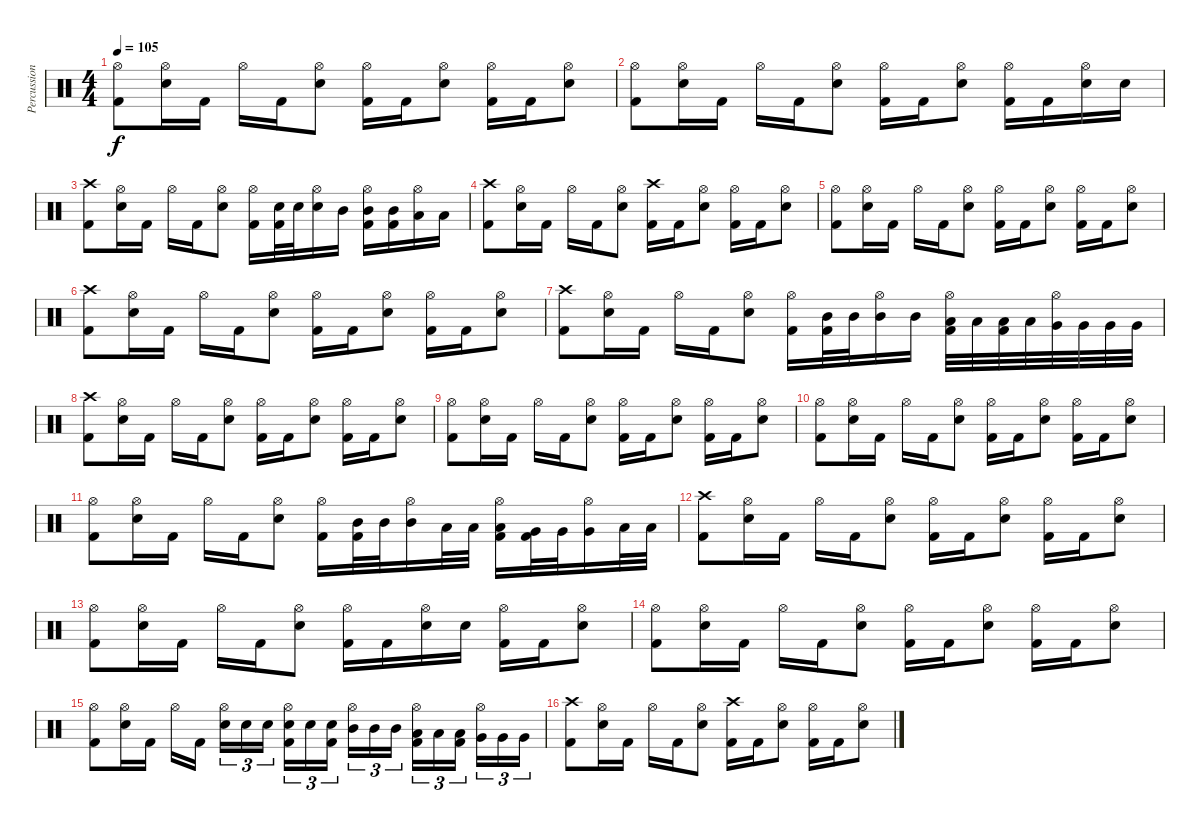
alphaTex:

\track ("Percussions" "Percussion") {instrument percussion}
\staff {score}
\articulation defaults
\ts (4 4)
\tempo 105
\clef neutral
\ks c
("Hi-Hat (open)" "Kick (hit) 2").8{dy f} ("Hi-Hat (open)" "Electric Snare (hit)").16 "Kick (hit) 2".16 "Hi-Hat (open)".16 "Kick (hit) 2".16 ("Hi-Hat (open)" "Electric Snare (hit)").8 ("Hi-Hat (open)" "Kick (hit) 2").16 "Kick (hit) 2".16 ("Hi-Hat (open)" "Electric Snare (hit)").8 ("Hi-Hat (open)" "Kick (hit) 2").16 "Kick (hit) 2".16 ("Hi-Hat (open)" "Electric Snare (hit)").8 |
("Hi-Hat (open)" "Kick (hit) 2").8 ("Hi-Hat (open)" "Electric Snare (hit)").16 "Kick (hit) 2".16 "Hi-Hat (open)".16 "Kick (hit) 2".16 ("Hi-Hat (open)" "Electric Snare (hit)").8 ("Hi-Hat (open)" "Kick (hit) 2").16 "Kick (hit) 2".16 ("Hi-Hat (open)" "Electric Snare (hit)").8 ("Hi-Hat (open)" "Kick (hit) 2").16 "Kick (hit) 2".16 ("Hi-Hat (open)" "Electric Snare (hit)").16 "Electric Snare (hit)".16 |
("Crash high (hit)" "Kick (hit) 2").8 ("Hi-Hat (open)" "Electric Snare (hit)").16 "Kick (hit) 2".16 "Hi-Hat (open)".16 "Kick (hit) 2".16 ("Hi-Hat (open)" "Electric Snare (hit)").8 ("Hi-Hat (open)" "Kick (hit) 2").16 ("Electric Snare (hit)" "Kick (hit) 2").32 "Electric Snare (hit)".32 ("Hi-Hat (open)" "Electric Snare (hit)").16 "Mid Tom (hit)".16 ("Hi-Hat (open)" "Mid Tom (hit)" "Kick (hit) 2").16 ("Mid Tom (hit)" "Kick (hit) 2").16 ("Hi-Hat (open)" "Low Tom (hit)").16 "Low Tom (hit)".16 |
("Crash high (hit)" "Kick (hit) 2").8 ("Hi-Hat (open)" "Electric Snare (hit)").16 "Kick (hit) 2".16 "Hi-Hat (open)".16 "Kick (hit) 2".16 ("Hi-Hat (open)" "Electric Snare (hit)").8 ("Crash high (hit)" "Kick (hit) 2").16 "Kick (hit) 2".16 ("Hi-Hat (open)" "Electric Snare (hit)").8 ("Hi-Hat (open)" "Kick (hit) 2").16 "Kick (hit) 2".16 ("Hi-Hat (open)" "Electric Snare (hit)").8 |
("Hi-Hat (open)" "Kick (hit) 2").8 ("Hi-Hat (open)" "Electric Snare (hit)").16 "Kick (hit) 2".16 "Hi-Hat (open)".16 "Kick (hit) 2".16 ("Hi-Hat (open)" "Electric Snare (hit)").8 ("Hi-Hat (open)" "Kick (hit) 2").16 "Kick (hit) 2".16 ("Hi-Hat (open)" "Electric Snare (hit)").8 ("Hi-Hat (open)" "Kick (hit) 2").16 "Kick (hit) 2".16 ("Hi-Hat (open)" "Electric Snare (hit)").8 |
("Crash high (hit)" "Kick (hit) 2").8 ("Hi-Hat (open)" "Electric Snare (hit)").16 "Kick (hit) 2".16 "Hi-Hat (open)".16 "Kick (hit) 2".16 ("Hi-Hat (open)" "Electric Snare (hit)").8 ("Hi-Hat (open)" "Kick (hit) 2").16 "Kick (hit) 2".16 ("Hi-Hat (open)" "Electric Snare (hit)").8 ("Hi-Hat (open)" "Kick (hit) 2").16 "Kick (hit) 2".16 ("Hi-Hat (open)" "Electric Snare (hit)").8 |
("Crash high (hit)" "Kick (hit) 2").8 ("Hi-Hat (open)" "Electric Snare (hit)").16 "Kick (hit) 2".16 "Hi-Hat (open)".16 "Kick (hit) 2".16 ("Hi-Hat (open)" "Electric Snare (hit)").8 ("Hi-Hat (open)" "Kick (hit) 2").16 ("Mid Tom (hit)" "Kick (hit) 2").32 "Mid Tom (hit)".32 ("Hi-Hat (open)" "Mid Tom (hit)").16 "Mid Tom (hit)".16 ("Hi-Hat (open)" "Low Tom (hit)" "Kick (hit) 2").32 "Low Tom (hit)".32 ("Low Tom (hit)" "Kick (hit) 2").32 "Low Tom (hit)".32 ("Hi-Hat (open)" "Very Low Tom (hit)").32 "Very Low Tom (hit)".32 "Very Low Tom (hit)".32 "Very Low Tom (hit)".32 |
("Crash high (hit)" "Kick (hit) 2").8 ("Hi-Hat (open)" "Electric Snare (hit)").16 "Kick (hit) 2".16 "Hi-Hat (open)".16 "Kick (hit) 2".16 ("Hi-Hat (open)" "Electric Snare (hit)").8 ("Hi-Hat (open)" "Kick (hit) 2").16 "Kick (hit) 2".16 ("Hi-Hat (open)" "Electric Snare (hit)").8 ("Hi-Hat (open)" "Kick (hit) 2").16 "Kick (hit) 2".16 ("Hi-Hat (open)" "Electric Snare (hit)").8 |
("Hi-Hat (open)" "Kick (hit) 2").8 ("Hi-Hat (open)" "Electric Snare (hit)").16 "Kick (hit) 2".16 "Hi-Hat (open)".16 "Kick (hit) 2".16 ("Hi-Hat (open)" "Electric Snare (hit)").8 ("Hi-Hat (open)" "Kick (hit) 2").16 "Kick (hit) 2".16 ("Hi-Hat (open)" "Electric Snare (hit)").8 ("Hi-Hat (open)" "Kick (hit) 2").16 "Kick (hit) 2".16 ("Hi-Hat (open)" "Electric Snare (hit)").8 |
("Hi-Hat (open)" "Kick (hit) 2").8 ("Hi-Hat (open)" "Electric Snare (hit)").16 "Kick (hit) 2".16 "Hi-Hat (open)".16 "Kick (hit) 2".16 ("Hi-Hat (open)" "Electric Snare (hit)").8 ("Hi-Hat (open)" "Kick (hit) 2").16 "Kick (hit) 2".16 ("Hi-Hat (open)" "Electric Snare (hit)").8 ("Hi-Hat (open)" "Kick (hit) 2").16 "Kick (hit) 2".16 ("Hi-Hat (open)" "Electric Snare (hit)").8 |
("Hi-Hat (open)" "Kick (hit) 2").8 ("Hi-Hat (open)" "Electric Snare (hit)").16 "Kick (hit) 2".16 "Hi-Hat (open)".16 "Kick (hit) 2".16 ("Hi-Hat (open)" "Electric Snare (hit)").8 ("Hi-Hat (open)" "Kick (hit) 2").16 ("Mid Tom (hit)" "Kick (hit) 2").32 "Mid Tom (hit)".32 ("Hi-Hat (open)" "Mid Tom (hit)").16 "Low Tom (hit)".32 "Low Tom (hit)".32 ("Hi-Hat (open)" "Low Tom (hit)" "Kick (hit) 2").16 ("Very Low Tom (hit)" "Kick (hit) 2").32 "Very Low Tom (hit)".32 ("Hi-Hat (open)" "Very Low Tom (hit)").16 "Low Floor Tom (hit)".32 "Low Floor Tom (hit)".32 |
("Crash high (hit)" "Kick (hit) 2").8 ("Hi-Hat (open)" "Electric Snare (hit)").16 "Kick (hit) 2".16 "Hi-Hat (open)".16 "Kick (hit) 2".16 ("Hi-Hat (open)" "Electric Snare (hit)").8 ("Hi-Hat (open)" "Kick (hit) 2").16 "Kick (hit) 2".16 ("Hi-Hat (open)" "Electric Snare (hit)").8 ("Hi-Hat (open)" "Kick (hit) 2").16 "Kick (hit) 2".16 ("Hi-Hat (open)" "Electric Snare (hit)").8 |
("Hi-Hat (open)" "Kick (hit) 2").8 ("Hi-Hat (open)" "Electric Snare (hit)").16 "Kick (hit) 2".16 "Hi-Hat (open)".16 "Kick (hit) 2".16 ("Hi-Hat (open)" "Electric Snare (hit)").8 ("Hi-Hat (open)" "Kick (hit) 2").16 "Kick (hit) 2".16 ("Hi-Hat (open)" "Electric Snare (hit)").16 "Electric Snare (hit)".16 ("Hi-Hat (open)" "Kick (hit) 2").16 "Kick (hit) 2".16 ("Hi-Hat (open)" "Electric Snare (hit)").8 |
("Hi-Hat (open)" "Kick (hit) 2").8 ("Hi-Hat (open)" "Electric Snare (hit)").16 "Kick (hit) 2".16 "Hi-Hat (open)".16 "Kick (hit) 2".16 ("Hi-Hat (open)" "Electric Snare (hit)").8 ("Hi-Hat (open)" "Kick (hit) 2").16 "Kick (hit) 2".16 ("Hi-Hat (open)" "Electric Snare (hit)").8 ("Hi-Hat (open)" "Kick (hit) 2").16 "Kick (hit) 2".16 ("Hi-Hat (open)" "Electric Snare (hit)").8 |
("Hi-Hat (open)" "Kick (hit) 2").8 ("Hi-Hat (open)" "Electric Snare (hit)").16 "Kick (hit) 2".16 "Hi-Hat (open)".16 "Kick (hit) 2".16 ("Hi-Hat (open)" "Electric Snare (hit)").16{tu (3 2)} "Electric Snare (hit)".16{tu (3 2)} "Electric Snare (hit)".16{tu (3 2)} ("Hi-Hat (open)" "Electric Snare (hit)" "Kick (hit) 2").16{tu (3 2)} "Electric Snare (hit)".16{tu (3 2)} ("Electric Snare (hit)" "Kick (hit) 2").16{tu (3 2)} ("Hi-Hat (open)" "Mid Tom (hit)").16{tu (3 2)} "Mid Tom (hit)".16{tu (3 2)} "Mid Tom (hit)".16{tu (3 2)} ("Hi-Hat (open)" "Low Tom (hit)" "Kick (hit) 2").16{tu (3 2)} "Low Tom (hit)".16{tu (3 2)} ("Low Tom (hit)" "Kick (hit) 2").16{tu (3 2)} ("Hi-Hat (open)" "Very Low Tom (hit)").16{tu (3 2)} "Very Low Tom (hit)".16{tu (3 2)} "Very Low Tom (hit)".16{tu (3 2)} |
("Crash high (hit)" "Kick (hit) 2").8 ("Hi-Hat (open)" "Electric Snare (hit)").16 "Kick (hit) 2".16 "Hi-Hat (open)".16 "Kick (hit) 2".16 ("Hi-Hat (open)" "Electric Snare (hit)").8 ("Crash high (hit)" "Kick (hit) 2").16 "Kick (hit) 2".16 ("Hi-Hat (open)" "Electric Snare (hit)").8 ("Hi-Hat (open)" "Kick (hit) 2").16 "Kick (hit) 2".16 ("Hi-Hat (open)" "Electric Snare (hit)").8
